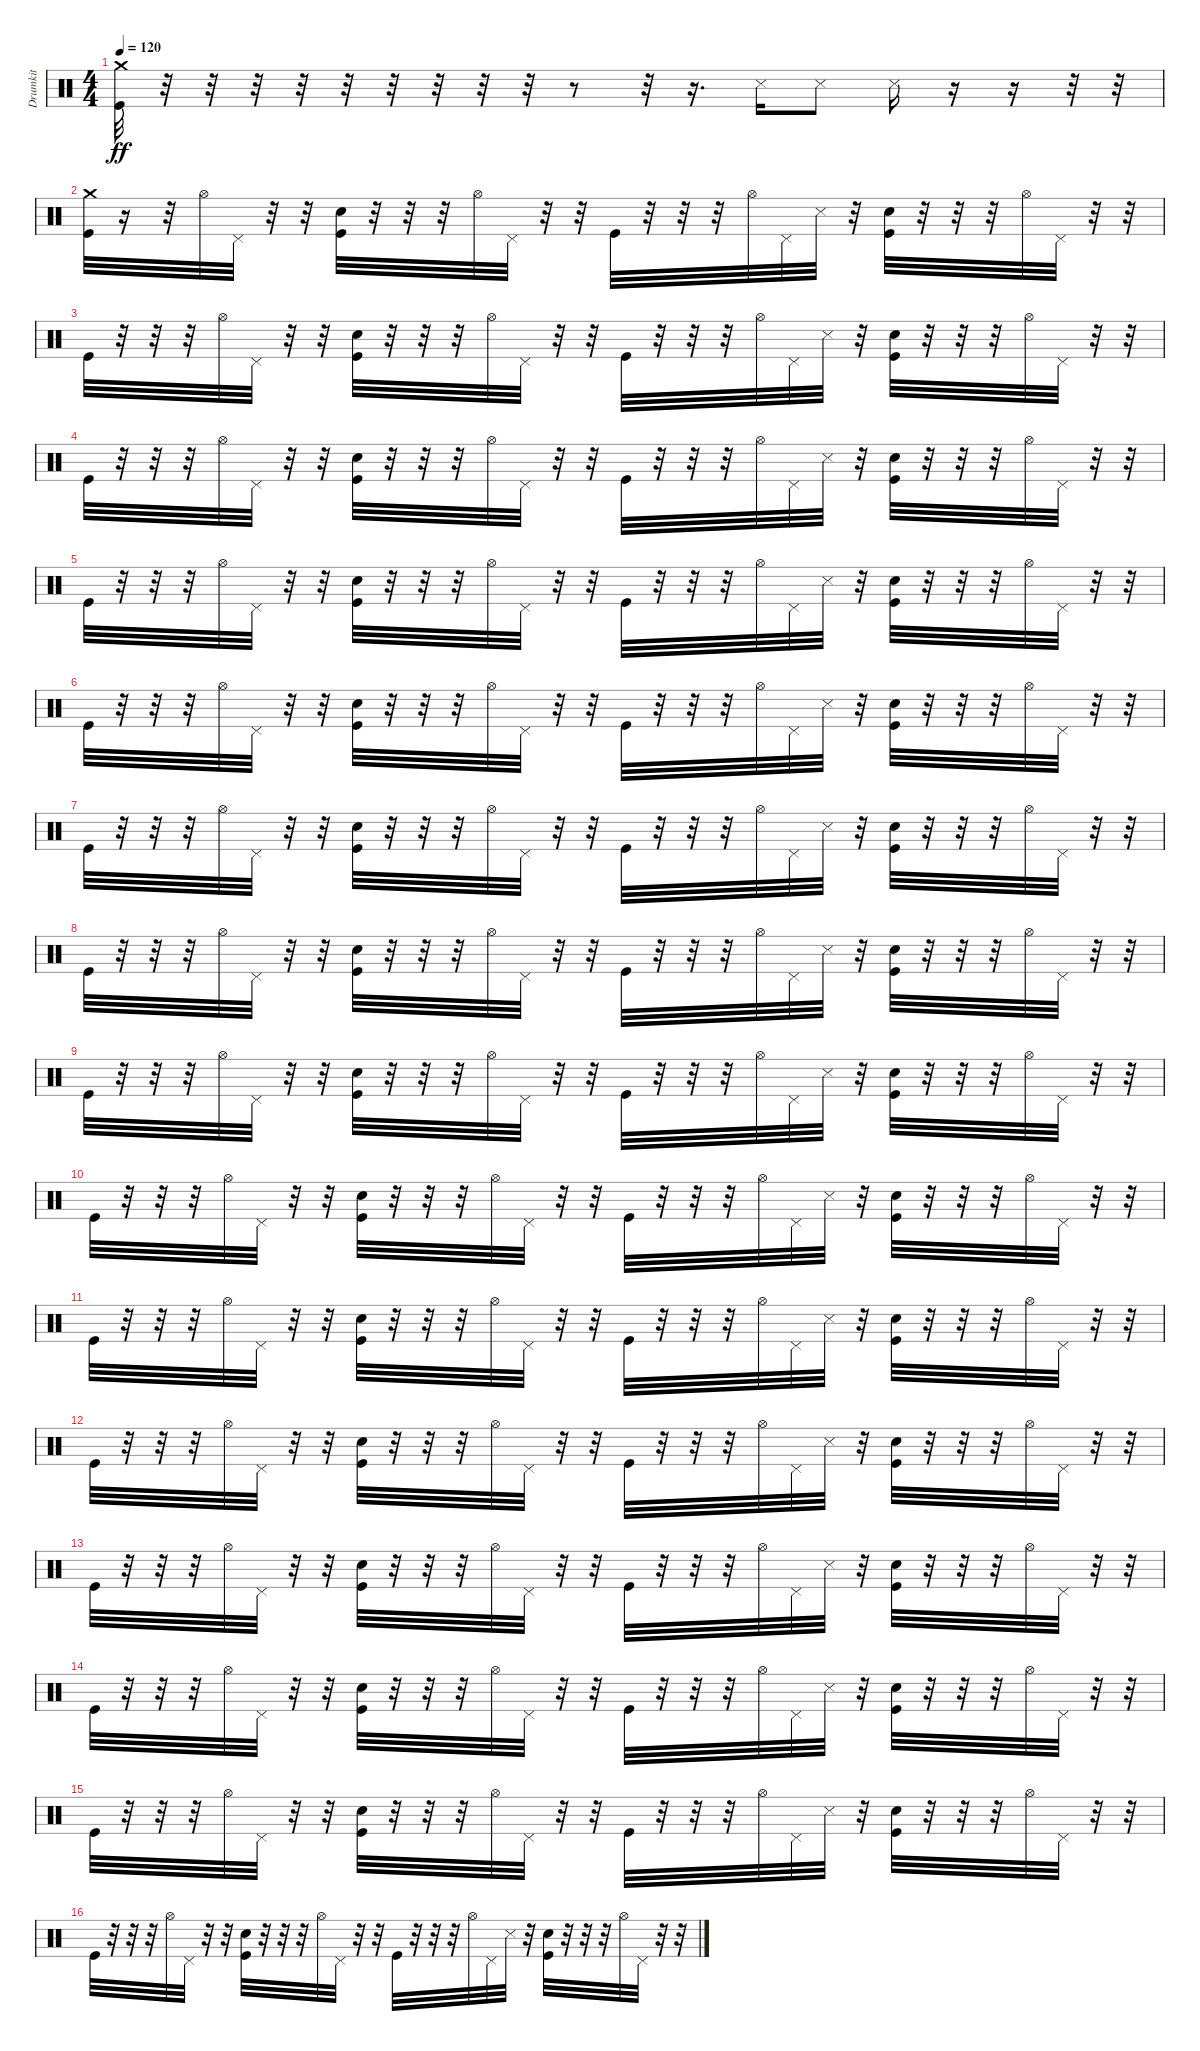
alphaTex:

\track ("Drumkit" "Drumkit") {instrument percussion}
\staff {score}
\articulation defaults
\ts (4 4)
\tempo 120
\clef neutral
\ks c
("Kick (hit)" "Crash medium (hit)").32{dy ff} r.32 r.32 r.32 r.32 r.32 r.32 r.32 r.32 r.32 r.8 r.32 r.16{d} "Snare (side stick) 3".16 "Snare (side stick) 3".8 "Snare (side stick) 3".16 r.16 r.16 r.32 r.32 |
("Crash medium (hit)" "Kick (hit)").32 r.16 r.32 "Hi-Hat (open)".32 "Pedal Hi-Hat (hit)".32 r.32 r.32 ("Snare (hit) 2" "Kick (hit)").32 r.32 r.32 r.32 "Hi-Hat (open)".32 "Pedal Hi-Hat (hit)".32 r.32 r.32 "Kick (hit)".32 r.32 r.32 r.32 "Hi-Hat (open)".32 "Pedal Hi-Hat (hit)".32 "Snare (side stick) 3".32 r.32 ("Snare (hit) 2" "Kick (hit)").32 r.32 r.32 r.32 "Hi-Hat (open)".32 "Pedal Hi-Hat (hit)".32 r.32 r.32 |
"Kick (hit)".32 r.32 r.32 r.32 "Hi-Hat (open)".32 "Pedal Hi-Hat (hit)".32 r.32 r.32 ("Snare (hit) 2" "Kick (hit)").32 r.32 r.32 r.32 "Hi-Hat (open)".32 "Pedal Hi-Hat (hit)".32 r.32 r.32 "Kick (hit)".32 r.32 r.32 r.32 "Hi-Hat (open)".32 "Pedal Hi-Hat (hit)".32 "Snare (side stick) 3".32 r.32 ("Snare (hit) 2" "Kick (hit)").32 r.32 r.32 r.32 "Hi-Hat (open)".32 "Pedal Hi-Hat (hit)".32 r.32 r.32 |
"Kick (hit)".32 r.32 r.32 r.32 "Hi-Hat (open)".32 "Pedal Hi-Hat (hit)".32 r.32 r.32 ("Snare (hit) 2" "Kick (hit)").32 r.32 r.32 r.32 "Hi-Hat (open)".32 "Pedal Hi-Hat (hit)".32 r.32 r.32 "Kick (hit)".32 r.32 r.32 r.32 "Hi-Hat (open)".32 "Pedal Hi-Hat (hit)".32 "Snare (side stick) 3".32 r.32 ("Snare (hit) 2" "Kick (hit)").32 r.32 r.32 r.32 "Hi-Hat (open)".32 "Pedal Hi-Hat (hit)".32 r.32 r.32 |
"Kick (hit)".32 r.32 r.32 r.32 "Hi-Hat (open)".32 "Pedal Hi-Hat (hit)".32 r.32 r.32 ("Snare (hit) 2" "Kick (hit)").32 r.32 r.32 r.32 "Hi-Hat (open)".32 "Pedal Hi-Hat (hit)".32 r.32 r.32 "Kick (hit)".32 r.32 r.32 r.32 "Hi-Hat (open)".32 "Pedal Hi-Hat (hit)".32 "Snare (side stick) 3".32 r.32 ("Kick (hit)" "Snare (hit) 2").32 r.32 r.32 r.32 "Hi-Hat (open)".32 "Pedal Hi-Hat (hit)".32 r.32 r.32 |
"Kick (hit)".32 r.32 r.32 r.32 "Hi-Hat (open)".32 "Pedal Hi-Hat (hit)".32 r.32 r.32 ("Kick (hit)" "Snare (hit) 2").32 r.32 r.32 r.32 "Hi-Hat (open)".32 "Pedal Hi-Hat (hit)".32 r.32 r.32 "Kick (hit)".32 r.32 r.32 r.32 "Hi-Hat (open)".32 "Pedal Hi-Hat (hit)".32 "Snare (side stick) 3".32 r.32 ("Snare (hit) 2" "Kick (hit)").32 r.32 r.32 r.32 "Hi-Hat (open)".32 "Pedal Hi-Hat (hit)".32 r.32 r.32 |
"Kick (hit)".32 r.32 r.32 r.32 "Hi-Hat (open)".32 "Pedal Hi-Hat (hit)".32 r.32 r.32 ("Snare (hit) 2" "Kick (hit)").32 r.32 r.32 r.32 "Hi-Hat (open)".32 "Pedal Hi-Hat (hit)".32 r.32 r.32 "Kick (hit)".32 r.32 r.32 r.32 "Hi-Hat (open)".32 "Pedal Hi-Hat (hit)".32 "Snare (side stick) 3".32 r.32 ("Kick (hit)" "Snare (hit) 2").32 r.32 r.32 r.32 "Hi-Hat (open)".32 "Pedal Hi-Hat (hit)".32 r.32 r.32 |
"Kick (hit)".32 r.32 r.32 r.32 "Hi-Hat (open)".32 "Pedal Hi-Hat (hit)".32 r.32 r.32 ("Kick (hit)" "Snare (hit) 2").32 r.32 r.32 r.32 "Hi-Hat (open)".32 "Pedal Hi-Hat (hit)".32 r.32 r.32 "Kick (hit)".32 r.32 r.32 r.32 "Hi-Hat (open)".32 "Pedal Hi-Hat (hit)".32 "Snare (side stick) 3".32 r.32 ("Snare (hit) 2" "Kick (hit)").32 r.32 r.32 r.32 "Hi-Hat (open)".32 "Pedal Hi-Hat (hit)".32 r.32 r.32 |
"Kick (hit)".32 r.32 r.32 r.32 "Hi-Hat (open)".32 "Pedal Hi-Hat (hit)".32 r.32 r.32 ("Kick (hit)" "Snare (hit) 2").32 r.32 r.32 r.32 "Hi-Hat (open)".32 "Pedal Hi-Hat (hit)".32 r.32 r.32 "Kick (hit)".32 r.32 r.32 r.32 "Hi-Hat (open)".32 "Pedal Hi-Hat (hit)".32 "Snare (side stick) 3".32 r.32 ("Kick (hit)" "Snare (hit) 2").32 r.32 r.32 r.32 "Hi-Hat (open)".32 "Pedal Hi-Hat (hit)".32 r.32 r.32 |
"Kick (hit)".32 r.32 r.32 r.32 "Hi-Hat (open)".32 "Pedal Hi-Hat (hit)".32 r.32 r.32 ("Snare (hit) 2" "Kick (hit)").32 r.32 r.32 r.32 "Hi-Hat (open)".32 "Pedal Hi-Hat (hit)".32 r.32 r.32 "Kick (hit)".32 r.32 r.32 r.32 "Hi-Hat (open)".32 "Pedal Hi-Hat (hit)".32 "Snare (side stick) 3".32 r.32 ("Kick (hit)" "Snare (hit) 2").32 r.32 r.32 r.32 "Hi-Hat (open)".32 "Pedal Hi-Hat (hit)".32 r.32 r.32 |
"Kick (hit)".32 r.32 r.32 r.32 "Hi-Hat (open)".32 "Pedal Hi-Hat (hit)".32 r.32 r.32 ("Snare (hit) 2" "Kick (hit)").32 r.32 r.32 r.32 "Hi-Hat (open)".32 "Pedal Hi-Hat (hit)".32 r.32 r.32 "Kick (hit)".32 r.32 r.32 r.32 "Hi-Hat (open)".32 "Pedal Hi-Hat (hit)".32 "Snare (side stick) 3".32 r.32 ("Snare (hit) 2" "Kick (hit)").32 r.32 r.32 r.32 "Hi-Hat (open)".32 "Pedal Hi-Hat (hit)".32 r.32 r.32 |
"Kick (hit)".32 r.32 r.32 r.32 "Hi-Hat (open)".32 "Pedal Hi-Hat (hit)".32 r.32 r.32 ("Snare (hit) 2" "Kick (hit)").32 r.32 r.32 r.32 "Hi-Hat (open)".32 "Pedal Hi-Hat (hit)".32 r.32 r.32 "Kick (hit)".32 r.32 r.32 r.32 "Hi-Hat (open)".32 "Pedal Hi-Hat (hit)".32 "Snare (side stick) 3".32 r.32 ("Kick (hit)" "Snare (hit) 2").32 r.32 r.32 r.32 "Hi-Hat (open)".32 "Pedal Hi-Hat (hit)".32 r.32 r.32 |
"Kick (hit)".32 r.32 r.32 r.32 "Hi-Hat (open)".32 "Pedal Hi-Hat (hit)".32 r.32 r.32 ("Kick (hit)" "Snare (hit) 2").32 r.32 r.32 r.32 "Hi-Hat (open)".32 "Pedal Hi-Hat (hit)".32 r.32 r.32 "Kick (hit)".32 r.32 r.32 r.32 "Hi-Hat (open)".32 "Pedal Hi-Hat (hit)".32 "Snare (side stick) 3".32 r.32 ("Kick (hit)" "Snare (hit) 2").32 r.32 r.32 r.32 "Hi-Hat (open)".32 "Pedal Hi-Hat (hit)".32 r.32 r.32 |
"Kick (hit)".32 r.32 r.32 r.32 "Hi-Hat (open)".32 "Pedal Hi-Hat (hit)".32 r.32 r.32 ("Snare (hit) 2" "Kick (hit)").32 r.32 r.32 r.32 "Hi-Hat (open)".32 "Pedal Hi-Hat (hit)".32 r.32 r.32 "Kick (hit)".32 r.32 r.32 r.32 "Hi-Hat (open)".32 "Pedal Hi-Hat (hit)".32 "Snare (side stick) 3".32 r.32 ("Kick (hit)" "Snare (hit) 2").32 r.32 r.32 r.32 "Hi-Hat (open)".32 "Pedal Hi-Hat (hit)".32 r.32 r.32 |
"Kick (hit)".32 r.32 r.32 r.32 "Hi-Hat (open)".32 "Pedal Hi-Hat (hit)".32 r.32 r.32 ("Snare (hit) 2" "Kick (hit)").32 r.32 r.32 r.32 "Hi-Hat (open)".32 "Pedal Hi-Hat (hit)".32 r.32 r.32 "Kick (hit)".32 r.32 r.32 r.32 "Hi-Hat (open)".32 "Pedal Hi-Hat (hit)".32 "Snare (side stick) 3".32 r.32 ("Snare (hit) 2" "Kick (hit)").32 r.32 r.32 r.32 "Hi-Hat (open)".32 "Pedal Hi-Hat (hit)".32 r.32 r.32 |
"Kick (hit)".32 r.32 r.32 r.32 "Hi-Hat (open)".32 "Pedal Hi-Hat (hit)".32 r.32 r.32 ("Snare (hit) 2" "Kick (hit)").32 r.32 r.32 r.32 "Hi-Hat (open)".32 "Pedal Hi-Hat (hit)".32 r.32 r.32 "Kick (hit)".32 r.32 r.32 r.32 "Hi-Hat (open)".32 "Pedal Hi-Hat (hit)".32 "Snare (side stick) 3".32 r.32 ("Kick (hit)" "Snare (hit) 2").32 r.32 r.32 r.32 "Hi-Hat (open)".32 "Pedal Hi-Hat (hit)".32 r.32 r.32
